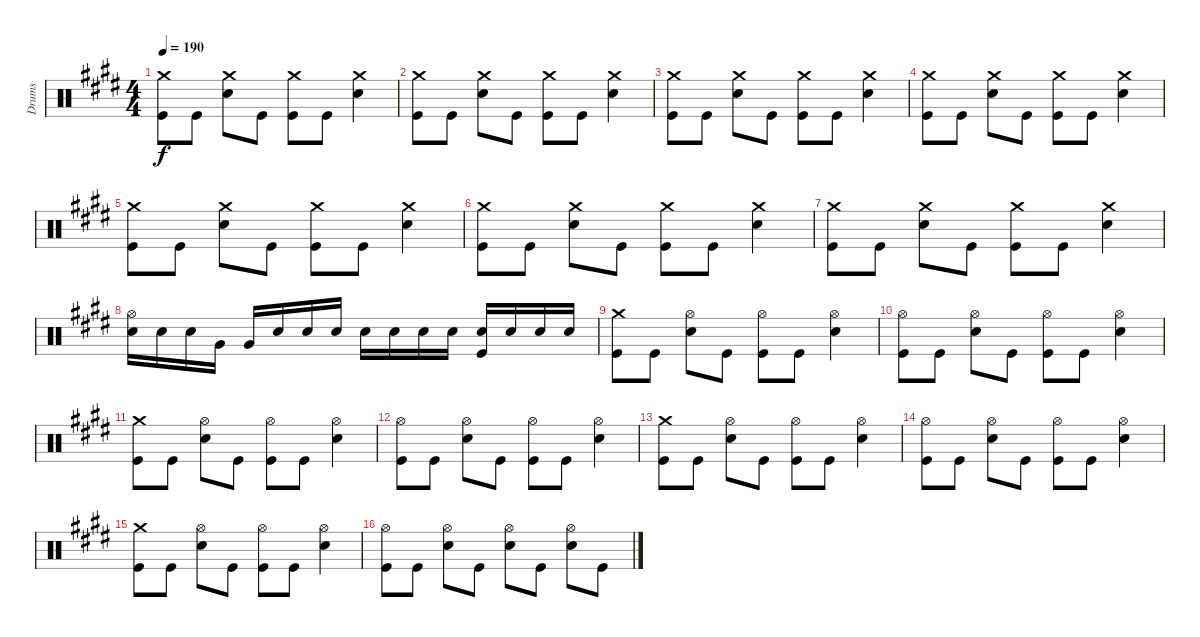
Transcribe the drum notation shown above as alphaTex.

\track ("Drums" "Drums") {instrument percussion}
\staff {score}
\articulation defaults
\ts (4 4)
\tempo 190
\clef neutral
\ks e
("Kick (hit)" "Crash medium (hit)").8{dy f} "Kick (hit)".8 ("Snare (hit) 2" "Crash medium (hit)").8 "Kick (hit)".8 ("Kick (hit)" "Crash medium (hit)").8 "Kick (hit)".8 ("Snare (hit) 2" "Crash medium (hit)").4 |
("Kick (hit)" "Crash medium (hit)").8 "Kick (hit)".8 ("Snare (hit) 2" "Crash medium (hit)").8 "Kick (hit)".8 ("Kick (hit)" "Crash medium (hit)").8 "Kick (hit)".8 ("Snare (hit) 2" "Crash medium (hit)").4 |
("Kick (hit)" "Crash medium (hit)").8 "Kick (hit)".8 ("Snare (hit) 2" "Crash medium (hit)").8 "Kick (hit)".8 ("Kick (hit)" "Crash medium (hit)").8 "Kick (hit)".8 ("Snare (hit) 2" "Crash medium (hit)").4 |
("Kick (hit)" "Crash medium (hit)").8 "Kick (hit)".8 ("Snare (hit) 2" "Crash medium (hit)").8 "Kick (hit)".8 ("Kick (hit)" "Crash medium (hit)").8 "Kick (hit)".8 ("Snare (hit) 2" "Crash medium (hit)").4 |
("Kick (hit)" "Crash medium (hit)").8 "Kick (hit)".8 ("Snare (hit) 2" "Crash medium (hit)").8 "Kick (hit)".8 ("Kick (hit)" "Crash medium (hit)").8 "Kick (hit)".8 ("Snare (hit) 2" "Crash medium (hit)").4 |
("Kick (hit)" "Crash medium (hit)").8 "Kick (hit)".8 ("Snare (hit) 2" "Crash medium (hit)").8 "Kick (hit)".8 ("Kick (hit)" "Crash medium (hit)").8 "Kick (hit)".8 ("Snare (hit) 2" "Crash medium (hit)").4 |
("Kick (hit)" "Crash medium (hit)").8 "Kick (hit)".8 ("Snare (hit) 2" "Crash medium (hit)").8 "Kick (hit)".8 ("Kick (hit)" "Crash medium (hit)").8 "Kick (hit)".8 ("Snare (hit) 2" "Crash medium (hit)").4 |
("Snare (hit) 2" "Hi-Hat (open)").16 "Snare (hit) 2".16 "Snare (hit) 2".16 "Very Low Tom (hit)".16 "Very Low Tom (hit)".16 "Snare (hit) 2".16 "Snare (hit) 2".16 "Snare (hit) 2".16 "Snare (hit) 2".16 "Snare (hit) 2".16 "Snare (hit) 2".16 "Snare (hit) 2".16 ("Snare (hit) 2" "Kick (hit)").16 "Snare (hit) 2".16 "Snare (hit) 2".16 "Snare (hit) 2".16 |
("Kick (hit)" "Crash medium (hit)").8 "Kick (hit)".8 ("Snare (hit) 2" "Hi-Hat (open)").8 "Kick (hit)".8 ("Kick (hit)" "Hi-Hat (open)").8 "Kick (hit)".8 ("Snare (hit) 2" "Hi-Hat (open)").4 |
("Kick (hit)" "Hi-Hat (open)").8 "Kick (hit)".8 ("Snare (hit) 2" "Hi-Hat (open)").8 "Kick (hit)".8 ("Kick (hit)" "Hi-Hat (open)").8 "Kick (hit)".8 ("Snare (hit) 2" "Hi-Hat (open)").4 |
("Kick (hit)" "Crash medium (hit)").8 "Kick (hit)".8 ("Snare (hit) 2" "Hi-Hat (open)").8 "Kick (hit)".8 ("Kick (hit)" "Hi-Hat (open)").8 "Kick (hit)".8 ("Snare (hit) 2" "Hi-Hat (open)").4 |
("Kick (hit)" "Hi-Hat (open)").8 "Kick (hit)".8 ("Snare (hit) 2" "Hi-Hat (open)").8 "Kick (hit)".8 ("Kick (hit)" "Hi-Hat (open)").8 "Kick (hit)".8 ("Snare (hit) 2" "Hi-Hat (open)").4 |
("Kick (hit)" "Crash medium (hit)").8 "Kick (hit)".8 ("Snare (hit) 2" "Hi-Hat (open)").8 "Kick (hit)".8 ("Kick (hit)" "Hi-Hat (open)").8 "Kick (hit)".8 ("Snare (hit) 2" "Hi-Hat (open)").4 |
("Kick (hit)" "Hi-Hat (open)").8 "Kick (hit)".8 ("Snare (hit) 2" "Hi-Hat (open)").8 "Kick (hit)".8 ("Kick (hit)" "Hi-Hat (open)").8 "Kick (hit)".8 ("Snare (hit) 2" "Hi-Hat (open)").4 |
("Kick (hit)" "Crash medium (hit)").8 "Kick (hit)".8 ("Snare (hit) 2" "Hi-Hat (open)").8 "Kick (hit)".8 ("Kick (hit)" "Hi-Hat (open)").8 "Kick (hit)".8 ("Snare (hit) 2" "Hi-Hat (open)").4 |
("Kick (hit)" "Hi-Hat (open)").8 "Kick (hit)".8 ("Snare (hit) 2" "Hi-Hat (open)").8 "Kick (hit)".8 ("Snare (hit) 2" "Hi-Hat (open)").8 "Kick (hit)".8 ("Snare (hit) 2" "Hi-Hat (open)").8 "Kick (hit)".8
